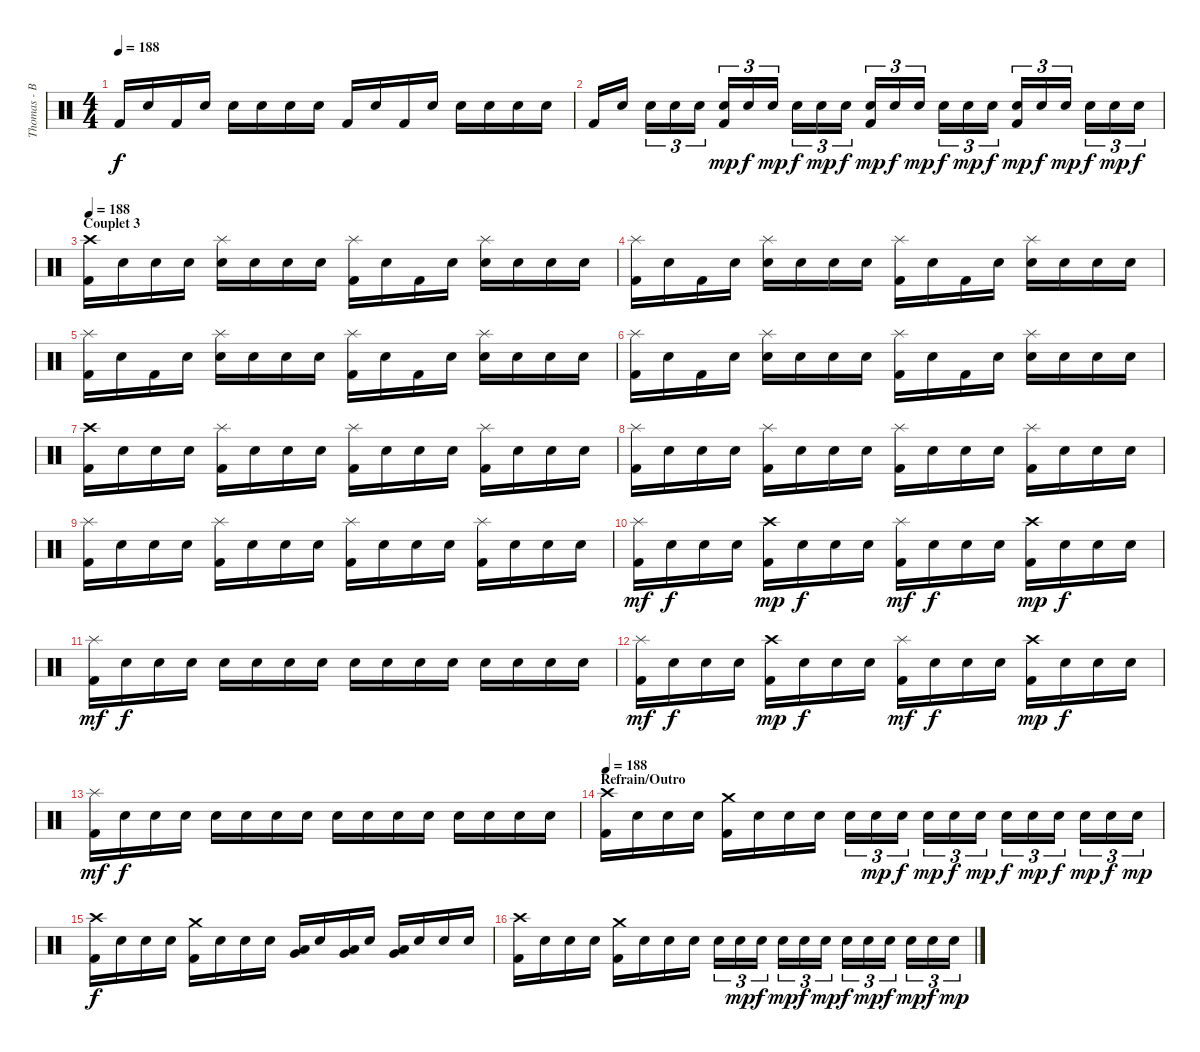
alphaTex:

\track ("Thomas - Batterie" "Thomas - B") {instrument percussion}
\staff {score}
\articulation defaults
\ts (4 4)
\tempo 188
\clef neutral
\ks c "Kick (hit) 2".16{dy f} "Snare (hit)".16 "Kick (hit) 2".16 "Snare (hit)".16 "Electric Snare (hit)".16 "Snare (hit)".16 "Snare (hit)".16 "Snare (hit)".16 "Kick (hit) 2".16 "Snare (hit)".16 "Kick (hit) 2".16 "Snare (hit)".16 "Electric Snare (hit)".16 "Snare (hit)".16 "Snare (hit)".16 "Snare (hit)".16
|
"Kick (hit) 2".16 "Snare (hit)".16 "Snare (hit)".16{tu (3 2)} "Snare (hit)".16{tu (3 2)} "Electric Snare (hit)".16{tu (3 2)} ("Electric Snare (hit)" "Kick (hit) 2").16{tu (3 2) dy mp} "Electric Snare (hit)".16{tu (3 2) dy f} "Electric Snare (hit)".16{tu (3 2) dy mp} "Electric Snare (hit)".16{tu (3 2) dy f} "Electric Snare (hit)".16{tu (3 2) dy mp} "Electric Snare (hit)".16{tu (3 2) dy f} ("Electric Snare (hit)" "Kick (hit) 2").16{tu (3 2) dy mp} "Electric Snare (hit)".16{tu (3 2) dy f} "Electric Snare (hit)".16{tu (3 2) dy mp} "Electric Snare (hit)".16{tu (3 2) dy f} "Electric Snare (hit)".16{tu (3 2) dy mp} "Electric Snare (hit)".16{tu (3 2) dy f} ("Electric Snare (hit)" "Kick (hit) 2").16{tu (3 2) dy mp} "Electric Snare (hit)".16{tu (3 2) dy f} "Electric Snare (hit)".16{tu (3 2) dy mp} "Electric Snare (hit)".16{tu (3 2) dy f} "Electric Snare (hit)".16{tu (3 2) dy mp} "Electric Snare (hit)".16{tu (3 2) dy f} |
\section ("" "Couplet 3")
\tempo 188
("Crash high (hit)" "Kick (hit) 2").16{volume 16 balance 8} "Snare (hit)".16 "Snare (hit)".16 "Snare (hit)".16 ("Splash (hit)" "Electric Snare (hit)").16 "Snare (hit)".16 "Snare (hit)".16 "Snare (hit)".16 ("Splash (hit)" "Kick (hit) 2").16 "Snare (hit)".16 "Kick (hit) 2".16 "Snare (hit)".16 ("Splash (hit)" "Electric Snare (hit)").16 "Snare (hit)".16 "Snare (hit)".16 "Snare (hit)".16 |
("Splash (hit)" "Kick (hit) 2").16 "Snare (hit)".16 "Kick (hit) 2".16 "Snare (hit)".16 ("Splash (hit)" "Electric Snare (hit)").16 "Snare (hit)".16 "Snare (hit)".16 "Snare (hit)".16 ("Splash (hit)" "Kick (hit) 2").16 "Snare (hit)".16 "Kick (hit) 2".16 "Snare (hit)".16 ("Splash (hit)" "Electric Snare (hit)").16 "Snare (hit)".16 "Snare (hit)".16 "Snare (hit)".16 |
("Splash (hit)" "Kick (hit) 2").16 "Snare (hit)".16 "Kick (hit) 2".16 "Snare (hit)".16 ("Splash (hit)" "Electric Snare (hit)").16 "Snare (hit)".16 "Snare (hit)".16 "Snare (hit)".16 ("Splash (hit)" "Kick (hit) 2").16 "Snare (hit)".16 "Kick (hit) 2".16 "Snare (hit)".16 ("Splash (hit)" "Electric Snare (hit)").16 "Snare (hit)".16 "Snare (hit)".16 "Snare (hit)".16 |
("Splash (hit)" "Kick (hit) 2").16 "Snare (hit)".16 "Kick (hit) 2".16 "Snare (hit)".16 ("Splash (hit)" "Electric Snare (hit)").16 "Snare (hit)".16 "Snare (hit)".16 "Snare (hit)".16 ("Splash (hit)" "Kick (hit) 2").16 "Snare (hit)".16 "Kick (hit) 2".16 "Snare (hit)".16 ("Splash (hit)" "Electric Snare (hit)").16 "Snare (hit)".16 "Snare (hit)".16 "Snare (hit)".16 |
("Crash high (hit)" "Kick (hit) 2").16 "Snare (hit)".16 "Electric Snare (hit)".16 "Snare (hit)".16 ("Splash (hit)" "Kick (hit) 2").16 "Snare (hit)".16 "Electric Snare (hit)".16 "Snare (hit)".16 ("Splash (hit)" "Kick (hit) 2").16 "Snare (hit)".16 "Electric Snare (hit)".16 "Snare (hit)".16 ("Splash (hit)" "Kick (hit) 2").16 "Snare (hit)".16 "Electric Snare (hit)".16 "Snare (hit)".16 |
("Splash (hit)" "Kick (hit) 2").16 "Snare (hit)".16 "Electric Snare (hit)".16 "Snare (hit)".16 ("Splash (hit)" "Kick (hit) 2").16 "Snare (hit)".16 "Electric Snare (hit)".16 "Snare (hit)".16 ("Splash (hit)" "Kick (hit) 2").16 "Snare (hit)".16 "Electric Snare (hit)".16 "Snare (hit)".16 ("Splash (hit)" "Kick (hit) 2").16 "Snare (hit)".16 "Electric Snare (hit)".16 "Snare (hit)".16 |
("Splash (hit)" "Kick (hit) 2").16 "Snare (hit)".16 "Electric Snare (hit)".16 "Snare (hit)".16 ("Splash (hit)" "Kick (hit) 2").16 "Snare (hit)".16 "Electric Snare (hit)".16 "Snare (hit)".16 ("Splash (hit)" "Kick (hit) 2").16 "Snare (hit)".16 "Electric Snare (hit)".16 "Snare (hit)".16 ("Splash (hit)" "Kick (hit) 2").16 "Snare (hit)".16 "Electric Snare (hit)".16 "Snare (hit)".16 |
("Splash (hit)" "Kick (hit) 2").16{dy mf} "Snare (hit)".16{dy f} "Snare (hit)".16 "Snare (hit)".16 ("Crash high (hit)" "Kick (hit) 2").16{dy mp} "Snare (hit)".16{dy f} "Snare (hit)".16 "Snare (hit)".16 ("Splash (hit)" "Kick (hit) 2").16{dy mf} "Snare (hit)".16{dy f} "Snare (hit)".16 "Snare (hit)".16 ("Crash high (hit)" "Kick (hit) 2").16{dy mp} "Snare (hit)".16{dy f} "Snare (hit)".16 "Snare (hit)".16 |
("Splash (hit)" "Kick (hit) 2").16{dy mf} "Snare (hit)".16{dy f} "Snare (hit)".16 "Snare (hit)".16 "Electric Snare (hit)".16 "Snare (hit)".16 "Electric Snare (hit)".16 "Snare (hit)".16 "Electric Snare (hit)".16 "Snare (hit)".16 "Electric Snare (hit)".16 "Snare (hit)".16 "Electric Snare (hit)".16 "Snare (hit)".16 "Electric Snare (hit)".16 "Snare (hit)".16 |
("Splash (hit)" "Kick (hit) 2").16{dy mf} "Snare (hit)".16{dy f} "Snare (hit)".16 "Snare (hit)".16 ("Crash high (hit)" "Kick (hit) 2").16{dy mp} "Snare (hit)".16{dy f} "Snare (hit)".16 "Snare (hit)".16 ("Splash (hit)" "Kick (hit) 2").16{dy mf} "Snare (hit)".16{dy f} "Snare (hit)".16 "Snare (hit)".16 ("Crash high (hit)" "Kick (hit) 2").16{dy mp} "Snare (hit)".16{dy f} "Snare (hit)".16 "Snare (hit)".16 |
("Splash (hit)" "Kick (hit) 2").16{dy mf} "Snare (hit)".16{dy f} "Snare (hit)".16 "Snare (hit)".16 "Electric Snare (hit)".16 "Snare (hit)".16 "Electric Snare (hit)".16 "Snare (hit)".16 "Electric Snare (hit)".16 "Snare (hit)".16 "Electric Snare (hit)".16 "Snare (hit)".16 "Electric Snare (hit)".16 "Snare (hit)".16 "Electric Snare (hit)".16 "Snare (hit)".16 |
\section ("" "Refrain/Outro")
\tempo 188
("Crash high (hit)" "Kick (hit) 2").16{volume 16 balance 8} "Snare (hit)".16 "Snare (hit)".16 "Snare (hit)".16 ("Crash medium (hit)" "Kick (hit) 2").16 "Snare (hit)".16 "Snare (hit)".16 "Snare (hit)".16 "Electric Snare (hit)".16{tu (3 2)} "Electric Snare (hit)".16{tu (3 2) dy mp} "Electric Snare (hit)".16{tu (3 2) dy f} "Electric Snare (hit)".16{tu (3 2) dy mp} "Electric Snare (hit)".16{tu (3 2) dy f} "Electric Snare (hit)".16{tu (3 2) dy mp} "Electric Snare (hit)".16{tu (3 2) dy f} "Electric Snare (hit)".16{tu (3 2) dy mp} "Electric Snare (hit)".16{tu (3 2) dy f} "Electric Snare (hit)".16{tu (3 2) dy mp} "Electric Snare (hit)".16{tu (3 2) dy f} "Electric Snare (hit)".16{tu (3 2) dy mp} |
("Crash high (hit)" "Kick (hit) 2").16{dy f} "Snare (hit)".16 "Snare (hit)".16 "Snare (hit)".16 ("Crash medium (hit)" "Kick (hit) 2").16 "Snare (hit)".16 "Snare (hit)".16 "Snare (hit)".16 ("Very Low Tom (hit)" "Low Floor Tom (hit)").16 "Snare (hit)".16 ("Very Low Tom (hit)" "Low Floor Tom (hit)").16 "Snare (hit)".16 ("Very Low Tom (hit)" "Low Floor Tom (hit)").16 "Snare (hit)".16 "Snare (hit)".16 "Snare (hit)".16 |
("Crash high (hit)" "Kick (hit) 2").16 "Snare (hit)".16 "Snare (hit)".16 "Snare (hit)".16 ("Crash medium (hit)" "Kick (hit) 2").16 "Snare (hit)".16 "Snare (hit)".16 "Snare (hit)".16 "Electric Snare (hit)".16{tu (3 2)} "Electric Snare (hit)".16{tu (3 2) dy mp} "Electric Snare (hit)".16{tu (3 2) dy f} "Electric Snare (hit)".16{tu (3 2) dy mp} "Electric Snare (hit)".16{tu (3 2) dy f} "Electric Snare (hit)".16{tu (3 2) dy mp} "Electric Snare (hit)".16{tu (3 2) dy f} "Electric Snare (hit)".16{tu (3 2) dy mp} "Electric Snare (hit)".16{tu (3 2) dy f} "Electric Snare (hit)".16{tu (3 2) dy mp} "Electric Snare (hit)".16{tu (3 2) dy f} "Electric Snare (hit)".16{tu (3 2) dy mp}
